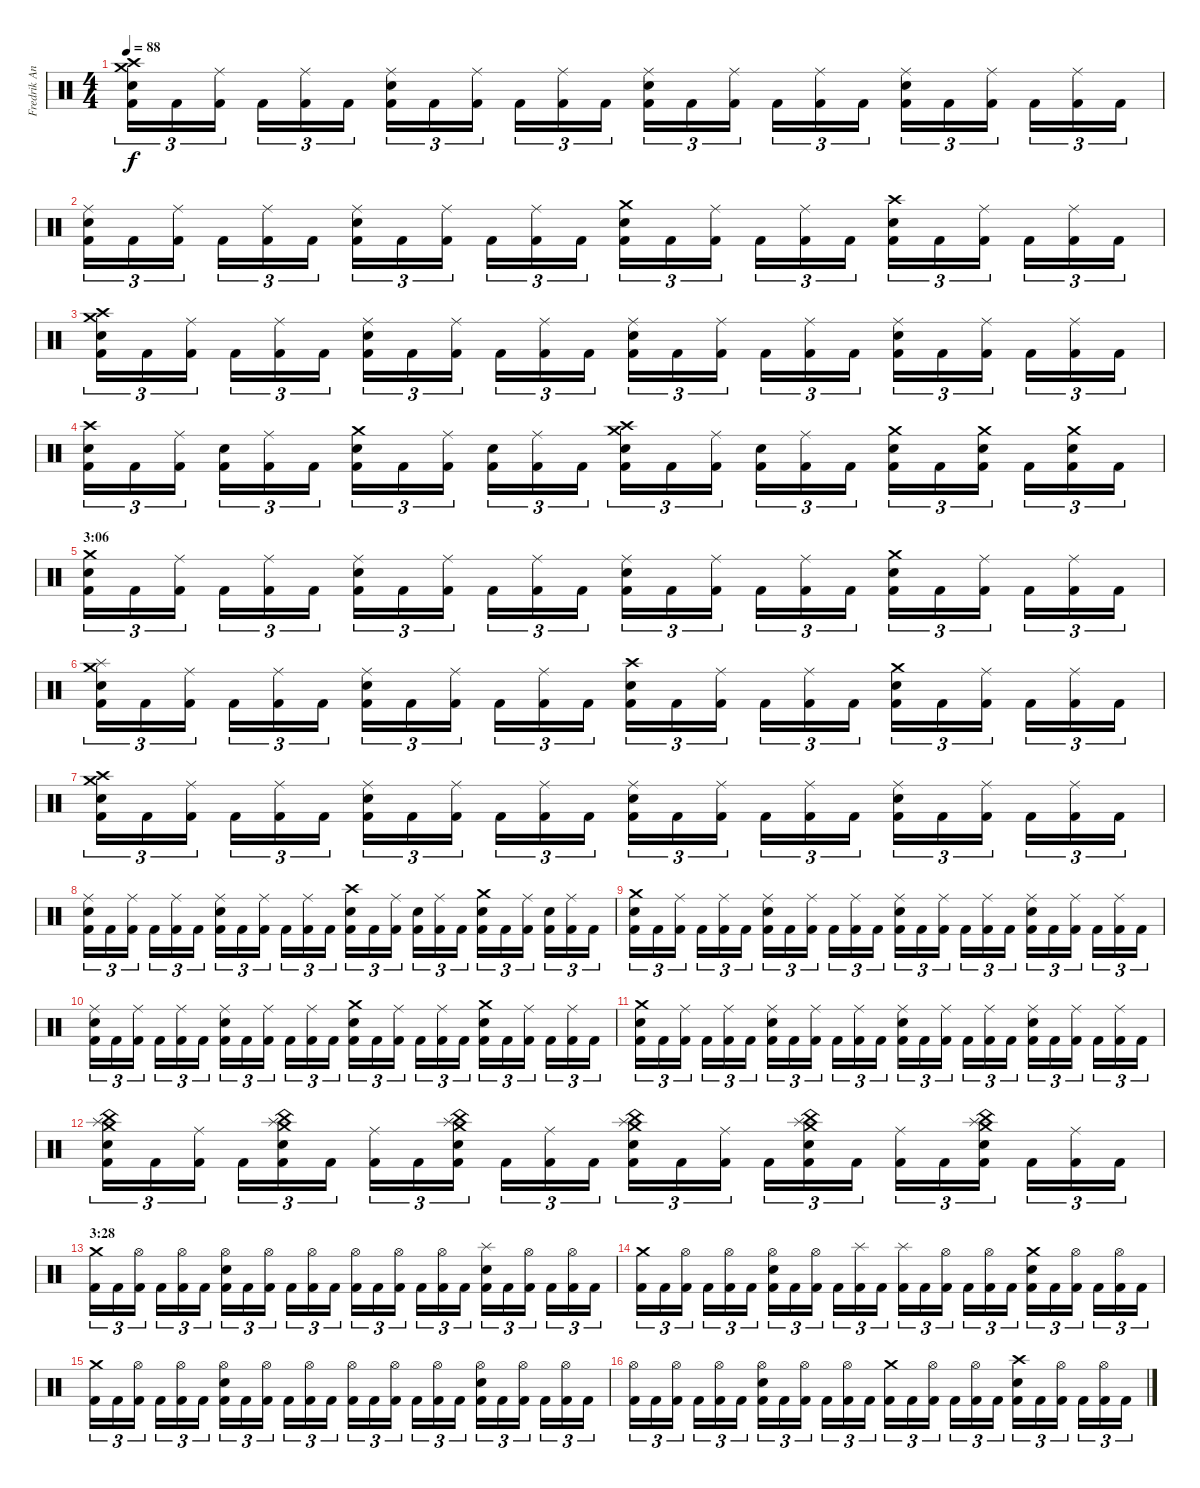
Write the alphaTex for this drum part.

\track ("Fredrik Andersson" "Fredrik An") {instrument percussion}
\staff {score}
\articulation defaults
\ts (4 4)
\tempo 88
\clef neutral
\ks c
("Crash medium (hit)" "Crash high (hit)" "Electric Snare (hit)" "Kick (hit) 2").16{tu (3 2) dy f} "Kick (hit) 2".16{tu (3 2)} ("Ride (middle)" "Kick (hit) 2").16{tu (3 2)} "Kick (hit) 2".16{tu (3 2)} ("Ride (middle)" "Kick (hit) 2").16{tu (3 2)} "Kick (hit) 2".16{tu (3 2)} ("Ride (middle)" "Electric Snare (hit)" "Kick (hit) 2").16{tu (3 2)} "Kick (hit) 2".16{tu (3 2)} ("Ride (middle)" "Kick (hit) 2").16{tu (3 2)} "Kick (hit) 2".16{tu (3 2)} ("Ride (middle)" "Kick (hit) 2").16{tu (3 2)} "Kick (hit) 2".16{tu (3 2)} ("Ride (middle)" "Electric Snare (hit)" "Kick (hit) 2").16{tu (3 2)} "Kick (hit) 2".16{tu (3 2)} ("Ride (middle)" "Kick (hit) 2").16{tu (3 2)} "Kick (hit) 2".16{tu (3 2)} ("Ride (middle)" "Kick (hit) 2").16{tu (3 2)} "Kick (hit) 2".16{tu (3 2)} ("Ride (middle)" "Electric Snare (hit)" "Kick (hit) 2").16{tu (3 2)} "Kick (hit) 2".16{tu (3 2)} ("Ride (middle)" "Kick (hit) 2").16{tu (3 2)} "Kick (hit) 2".16{tu (3 2)} ("Ride (middle)" "Kick (hit) 2").16{tu (3 2)} "Kick (hit) 2".16{tu (3 2)} |
("Ride (middle)" "Electric Snare (hit)" "Kick (hit) 2").16{tu (3 2)} "Kick (hit) 2".16{tu (3 2)} ("Ride (middle)" "Kick (hit) 2").16{tu (3 2)} "Kick (hit) 2".16{tu (3 2)} ("Ride (middle)" "Kick (hit) 2").16{tu (3 2)} "Kick (hit) 2".16{tu (3 2)} ("Ride (middle)" "Electric Snare (hit)" "Kick (hit) 2").16{tu (3 2)} "Kick (hit) 2".16{tu (3 2)} ("Ride (middle)" "Kick (hit) 2").16{tu (3 2)} "Kick (hit) 2".16{tu (3 2)} ("Ride (middle)" "Kick (hit) 2").16{tu (3 2)} "Kick (hit) 2".16{tu (3 2)} ("Crash medium (hit)" "Electric Snare (hit)" "Kick (hit) 2").16{tu (3 2)} "Kick (hit) 2".16{tu (3 2)} ("Ride (middle)" "Kick (hit) 2").16{tu (3 2)} "Kick (hit) 2".16{tu (3 2)} ("Ride (middle)" "Kick (hit) 2").16{tu (3 2)} "Kick (hit) 2".16{tu (3 2)} ("Crash high (hit)" "Electric Snare (hit)" "Kick (hit) 2").16{tu (3 2)} "Kick (hit) 2".16{tu (3 2)} ("Ride (middle)" "Kick (hit) 2").16{tu (3 2)} "Kick (hit) 2".16{tu (3 2)} ("Ride (middle)" "Kick (hit) 2").16{tu (3 2)} "Kick (hit) 2".16{tu (3 2)} |
("Crash medium (hit)" "Crash high (hit)" "Electric Snare (hit)" "Kick (hit) 2").16{tu (3 2)} "Kick (hit) 2".16{tu (3 2)} ("Ride (middle)" "Kick (hit) 2").16{tu (3 2)} "Kick (hit) 2".16{tu (3 2)} ("Ride (middle)" "Kick (hit) 2").16{tu (3 2)} "Kick (hit) 2".16{tu (3 2)} ("Ride (middle)" "Electric Snare (hit)" "Kick (hit) 2").16{tu (3 2)} "Kick (hit) 2".16{tu (3 2)} ("Ride (middle)" "Kick (hit) 2").16{tu (3 2)} "Kick (hit) 2".16{tu (3 2)} ("Ride (middle)" "Kick (hit) 2").16{tu (3 2)} "Kick (hit) 2".16{tu (3 2)} ("Ride (middle)" "Electric Snare (hit)" "Kick (hit) 2").16{tu (3 2)} "Kick (hit) 2".16{tu (3 2)} ("Ride (middle)" "Kick (hit) 2").16{tu (3 2)} "Kick (hit) 2".16{tu (3 2)} ("Ride (middle)" "Kick (hit) 2").16{tu (3 2)} "Kick (hit) 2".16{tu (3 2)} ("Ride (middle)" "Electric Snare (hit)" "Kick (hit) 2").16{tu (3 2)} "Kick (hit) 2".16{tu (3 2)} ("Ride (middle)" "Kick (hit) 2").16{tu (3 2)} "Kick (hit) 2".16{tu (3 2)} ("Ride (middle)" "Kick (hit) 2").16{tu (3 2)} "Kick (hit) 2".16{tu (3 2)} |
("Crash high (hit)" "Electric Snare (hit)" "Kick (hit) 2").16{tu (3 2)} "Kick (hit) 2".16{tu (3 2)} ("Ride (middle)" "Kick (hit) 2").16{tu (3 2)} ("Electric Snare (hit)" "Kick (hit) 2").16{tu (3 2)} ("Ride (middle)" "Kick (hit) 2").16{tu (3 2)} "Kick (hit) 2".16{tu (3 2)} ("Crash medium (hit)" "Electric Snare (hit)" "Kick (hit) 2").16{tu (3 2)} "Kick (hit) 2".16{tu (3 2)} ("Ride (middle)" "Kick (hit) 2").16{tu (3 2)} ("Electric Snare (hit)" "Kick (hit) 2").16{tu (3 2)} ("Ride (middle)" "Kick (hit) 2").16{tu (3 2)} "Kick (hit) 2".16{tu (3 2)} ("Crash high (hit)" "Crash medium (hit)" "Electric Snare (hit)" "Kick (hit) 2").16{tu (3 2)} "Kick (hit) 2".16{tu (3 2)} ("Ride (middle)" "Kick (hit) 2").16{tu (3 2)} ("Electric Snare (hit)" "Kick (hit) 2").16{tu (3 2)} ("Ride (middle)" "Kick (hit) 2").16{tu (3 2)} "Kick (hit) 2".16{tu (3 2)} ("Crash medium (hit)" "Electric Snare (hit)" "Kick (hit) 2").16{tu (3 2)} "Kick (hit) 2".16{tu (3 2)} ("Crash medium (hit)" "Electric Snare (hit)" "Kick (hit) 2").16{tu (3 2)} "Kick (hit) 2".16{tu (3 2)} ("Crash medium (hit)" "Electric Snare (hit)" "Kick (hit) 2").16{tu (3 2)} "Kick (hit) 2".16{tu (3 2)} |
\section ("" "3:06")
("Crash medium (hit)" "Electric Snare (hit)" "Kick (hit) 2").16{tu (3 2)} "Kick (hit) 2".16{tu (3 2)} ("Ride (middle)" "Kick (hit) 2").16{tu (3 2)} "Kick (hit) 2".16{tu (3 2)} ("Ride (middle)" "Kick (hit) 2").16{tu (3 2)} "Kick (hit) 2".16{tu (3 2)} ("Ride (middle)" "Electric Snare (hit)" "Kick (hit) 2").16{tu (3 2)} "Kick (hit) 2".16{tu (3 2)} ("Ride (middle)" "Kick (hit) 2").16{tu (3 2)} "Kick (hit) 2".16{tu (3 2)} ("Ride (middle)" "Kick (hit) 2").16{tu (3 2)} "Kick (hit) 2".16{tu (3 2)} ("Ride (middle)" "Electric Snare (hit)" "Kick (hit) 2").16{tu (3 2)} "Kick (hit) 2".16{tu (3 2)} ("Ride (middle)" "Kick (hit) 2").16{tu (3 2)} "Kick (hit) 2".16{tu (3 2)} ("Ride (middle)" "Kick (hit) 2").16{tu (3 2)} "Kick (hit) 2".16{tu (3 2)} ("Crash medium (hit)" "Electric Snare (hit)" "Kick (hit) 2").16{tu (3 2)} "Kick (hit) 2".16{tu (3 2)} ("Ride (middle)" "Kick (hit) 2").16{tu (3 2)} "Kick (hit) 2".16{tu (3 2)} ("Ride (middle)" "Kick (hit) 2").16{tu (3 2)} "Kick (hit) 2".16{tu (3 2)} |
("Crash medium (hit)" "Splash (hit)" "Electric Snare (hit)" "Kick (hit) 2").16{tu (3 2)} "Kick (hit) 2".16{tu (3 2)} ("Ride (middle)" "Kick (hit) 2").16{tu (3 2)} "Kick (hit) 2".16{tu (3 2)} ("Ride (middle)" "Kick (hit) 2").16{tu (3 2)} "Kick (hit) 2".16{tu (3 2)} ("Ride (middle)" "Electric Snare (hit)" "Kick (hit) 2").16{tu (3 2)} "Kick (hit) 2".16{tu (3 2)} ("Ride (middle)" "Kick (hit) 2").16{tu (3 2)} "Kick (hit) 2".16{tu (3 2)} ("Ride (middle)" "Kick (hit) 2").16{tu (3 2)} "Kick (hit) 2".16{tu (3 2)} ("Crash high (hit)" "Electric Snare (hit)" "Kick (hit) 2").16{tu (3 2)} "Kick (hit) 2".16{tu (3 2)} ("Ride (middle)" "Kick (hit) 2").16{tu (3 2)} "Kick (hit) 2".16{tu (3 2)} ("Ride (middle)" "Kick (hit) 2").16{tu (3 2)} "Kick (hit) 2".16{tu (3 2)} ("Crash medium (hit)" "Electric Snare (hit)" "Kick (hit) 2").16{tu (3 2)} "Kick (hit) 2".16{tu (3 2)} ("Ride (middle)" "Kick (hit) 2").16{tu (3 2)} "Kick (hit) 2".16{tu (3 2)} ("Ride (middle)" "Kick (hit) 2").16{tu (3 2)} "Kick (hit) 2".16{tu (3 2)} |
("Crash medium (hit)" "Crash high (hit)" "Electric Snare (hit)" "Kick (hit) 2").16{tu (3 2)} "Kick (hit) 2".16{tu (3 2)} ("Ride (middle)" "Kick (hit) 2").16{tu (3 2)} "Kick (hit) 2".16{tu (3 2)} ("Ride (middle)" "Kick (hit) 2").16{tu (3 2)} "Kick (hit) 2".16{tu (3 2)} ("Ride (middle)" "Electric Snare (hit)" "Kick (hit) 2").16{tu (3 2)} "Kick (hit) 2".16{tu (3 2)} ("Ride (middle)" "Kick (hit) 2").16{tu (3 2)} "Kick (hit) 2".16{tu (3 2)} ("Ride (middle)" "Kick (hit) 2").16{tu (3 2)} "Kick (hit) 2".16{tu (3 2)} ("Ride (middle)" "Electric Snare (hit)" "Kick (hit) 2").16{tu (3 2)} "Kick (hit) 2".16{tu (3 2)} ("Ride (middle)" "Kick (hit) 2").16{tu (3 2)} "Kick (hit) 2".16{tu (3 2)} ("Ride (middle)" "Kick (hit) 2").16{tu (3 2)} "Kick (hit) 2".16{tu (3 2)} ("Ride (middle)" "Electric Snare (hit)" "Kick (hit) 2").16{tu (3 2)} "Kick (hit) 2".16{tu (3 2)} ("Ride (middle)" "Kick (hit) 2").16{tu (3 2)} "Kick (hit) 2".16{tu (3 2)} ("Ride (middle)" "Kick (hit) 2").16{tu (3 2)} "Kick (hit) 2".16{tu (3 2)} |
("Ride (middle)" "Electric Snare (hit)" "Kick (hit) 2").16{tu (3 2)} "Kick (hit) 2".16{tu (3 2)} ("Ride (middle)" "Kick (hit) 2").16{tu (3 2)} "Kick (hit) 2".16{tu (3 2)} ("Ride (middle)" "Kick (hit) 2").16{tu (3 2)} "Kick (hit) 2".16{tu (3 2)} ("Ride (middle)" "Electric Snare (hit)" "Kick (hit) 2").16{tu (3 2)} "Kick (hit) 2".16{tu (3 2)} ("Ride (middle)" "Kick (hit) 2").16{tu (3 2)} "Kick (hit) 2".16{tu (3 2)} ("Ride (middle)" "Kick (hit) 2").16{tu (3 2)} "Kick (hit) 2".16{tu (3 2)} ("Crash high (hit)" "Electric Snare (hit)" "Kick (hit) 2").16{tu (3 2)} "Kick (hit) 2".16{tu (3 2)} ("Ride (middle)" "Kick (hit) 2").16{tu (3 2)} ("Electric Snare (hit)" "Kick (hit) 2").16{tu (3 2)} ("Ride (middle)" "Kick (hit) 2").16{tu (3 2)} "Kick (hit) 2".16{tu (3 2)} ("Crash medium (hit)" "Electric Snare (hit)" "Kick (hit) 2").16{tu (3 2)} "Kick (hit) 2".16{tu (3 2)} ("Ride (middle)" "Kick (hit) 2").16{tu (3 2)} ("Electric Snare (hit)" "Kick (hit) 2").16{tu (3 2)} ("Ride (middle)" "Kick (hit) 2").16{tu (3 2)} "Kick (hit) 2".16{tu (3 2)} |
("Crash medium (hit)" "Electric Snare (hit)" "Kick (hit) 2").16{tu (3 2)} "Kick (hit) 2".16{tu (3 2)} ("Ride (middle)" "Kick (hit) 2").16{tu (3 2)} "Kick (hit) 2".16{tu (3 2)} ("Ride (middle)" "Kick (hit) 2").16{tu (3 2)} "Kick (hit) 2".16{tu (3 2)} ("Ride (middle)" "Electric Snare (hit)" "Kick (hit) 2").16{tu (3 2)} "Kick (hit) 2".16{tu (3 2)} ("Ride (middle)" "Kick (hit) 2").16{tu (3 2)} "Kick (hit) 2".16{tu (3 2)} ("Ride (middle)" "Kick (hit) 2").16{tu (3 2)} "Kick (hit) 2".16{tu (3 2)} ("Ride (middle)" "Electric Snare (hit)" "Kick (hit) 2").16{tu (3 2)} "Kick (hit) 2".16{tu (3 2)} ("Ride (middle)" "Kick (hit) 2").16{tu (3 2)} "Kick (hit) 2".16{tu (3 2)} ("Ride (middle)" "Kick (hit) 2").16{tu (3 2)} "Kick (hit) 2".16{tu (3 2)} ("Ride (middle)" "Electric Snare (hit)" "Kick (hit) 2").16{tu (3 2)} "Kick (hit) 2".16{tu (3 2)} ("Ride (middle)" "Kick (hit) 2").16{tu (3 2)} "Kick (hit) 2".16{tu (3 2)} ("Ride (middle)" "Kick (hit) 2").16{tu (3 2)} "Kick (hit) 2".16{tu (3 2)} |
("Ride (middle)" "Electric Snare (hit)" "Kick (hit) 2").16{tu (3 2)} "Kick (hit) 2".16{tu (3 2)} ("Ride (middle)" "Kick (hit) 2").16{tu (3 2)} "Kick (hit) 2".16{tu (3 2)} ("Ride (middle)" "Kick (hit) 2").16{tu (3 2)} "Kick (hit) 2".16{tu (3 2)} ("Ride (middle)" "Electric Snare (hit)" "Kick (hit) 2").16{tu (3 2)} "Kick (hit) 2".16{tu (3 2)} ("Ride (middle)" "Kick (hit) 2").16{tu (3 2)} "Kick (hit) 2".16{tu (3 2)} ("Ride (middle)" "Kick (hit) 2").16{tu (3 2)} "Kick (hit) 2".16{tu (3 2)} ("Crash medium (hit)" "Electric Snare (hit)" "Kick (hit) 2").16{tu (3 2)} "Kick (hit) 2".16{tu (3 2)} ("Ride (middle)" "Kick (hit) 2").16{tu (3 2)} "Kick (hit) 2".16{tu (3 2)} ("Ride (middle)" "Kick (hit) 2").16{tu (3 2)} "Kick (hit) 2".16{tu (3 2)} ("Crash medium (hit)" "Electric Snare (hit)" "Kick (hit) 2").16{tu (3 2)} "Kick (hit) 2".16{tu (3 2)} ("Ride (middle)" "Kick (hit) 2").16{tu (3 2)} "Kick (hit) 2".16{tu (3 2)} ("Ride (middle)" "Kick (hit) 2").16{tu (3 2)} "Kick (hit) 2".16{tu (3 2)} |
("Crash medium (hit)" "Electric Snare (hit)" "Kick (hit) 2").16{tu (3 2)} "Kick (hit) 2".16{tu (3 2)} ("Ride (middle)" "Kick (hit) 2").16{tu (3 2)} "Kick (hit) 2".16{tu (3 2)} ("Ride (middle)" "Kick (hit) 2").16{tu (3 2)} "Kick (hit) 2".16{tu (3 2)} ("Ride (middle)" "Electric Snare (hit)" "Kick (hit) 2").16{tu (3 2)} "Kick (hit) 2".16{tu (3 2)} ("Ride (middle)" "Kick (hit) 2").16{tu (3 2)} "Kick (hit) 2".16{tu (3 2)} ("Ride (middle)" "Kick (hit) 2").16{tu (3 2)} "Kick (hit) 2".16{tu (3 2)} ("Ride (middle)" "Electric Snare (hit)" "Kick (hit) 2").16{tu (3 2)} "Kick (hit) 2".16{tu (3 2)} ("Ride (middle)" "Kick (hit) 2").16{tu (3 2)} "Kick (hit) 2".16{tu (3 2)} ("Ride (middle)" "Kick (hit) 2").16{tu (3 2)} "Kick (hit) 2".16{tu (3 2)} ("Ride (middle)" "Electric Snare (hit)" "Kick (hit) 2").16{tu (3 2)} "Kick (hit) 2".16{tu (3 2)} ("Ride (middle)" "Kick (hit) 2").16{tu (3 2)} "Kick (hit) 2".16{tu (3 2)} ("Ride (middle)" "Kick (hit) 2").16{tu (3 2)} "Kick (hit) 2".16{tu (3 2)} |
("China (hit)" "Splash (hit)" "Crash medium (hit)" "Electric Snare (hit)" "Kick (hit) 2").16{tu (3 2)} "Kick (hit) 2".16{tu (3 2)} ("Ride (middle)" "Kick (hit) 2").16{tu (3 2)} "Kick (hit) 2".16{tu (3 2)} ("China (hit)" "Splash (hit)" "Crash medium (hit)" "Electric Snare (hit)" "Kick (hit) 2").16{tu (3 2)} "Kick (hit) 2".16{tu (3 2)} ("Ride (middle)" "Kick (hit) 2").16{tu (3 2)} "Kick (hit) 2".16{tu (3 2)} ("China (hit)" "Splash (hit)" "Crash medium (hit)" "Electric Snare (hit)" "Kick (hit) 2").16{tu (3 2)} "Kick (hit) 2".16{tu (3 2)} ("Ride (middle)" "Kick (hit) 2").16{tu (3 2)} "Kick (hit) 2".16{tu (3 2)} ("China (hit)" "Splash (hit)" "Crash medium (hit)" "Electric Snare (hit)" "Kick (hit) 2").16{tu (3 2)} "Kick (hit) 2".16{tu (3 2)} ("Ride (middle)" "Kick (hit) 2").16{tu (3 2)} "Kick (hit) 2".16{tu (3 2)} ("China (hit)" "Splash (hit)" "Crash medium (hit)" "Electric Snare (hit)" "Kick (hit) 2").16{tu (3 2)} "Kick (hit) 2".16{tu (3 2)} ("Ride (middle)" "Kick (hit) 2").16{tu (3 2)} "Kick (hit) 2".16{tu (3 2)} ("China (hit)" "Splash (hit)" "Crash medium (hit)" "Electric Snare (hit)" "Kick (hit) 2").16{tu (3 2)} "Kick (hit) 2".16{tu (3 2)} ("Ride (middle)" "Kick (hit) 2").16{tu (3 2)} "Kick (hit) 2".16{tu (3 2)} |
\section ("" "3:28")
("Crash medium (hit)" "Kick (hit) 2").16{tu (3 2)} "Kick (hit) 2".16{tu (3 2)} ("Hi-Hat (open)" "Kick (hit) 2").16{tu (3 2)} "Kick (hit) 2".16{tu (3 2)} ("Hi-Hat (open)" "Kick (hit) 2").16{tu (3 2)} "Kick (hit) 2".16{tu (3 2)} ("Hi-Hat (open)" "Electric Snare (hit)" "Kick (hit) 2").16{tu (3 2)} "Kick (hit) 2".16{tu (3 2)} ("Hi-Hat (open)" "Kick (hit) 2").16{tu (3 2)} "Kick (hit) 2".16{tu (3 2)} ("Hi-Hat (open)" "Kick (hit) 2").16{tu (3 2)} "Kick (hit) 2".16{tu (3 2)} ("Hi-Hat (open)" "Kick (hit) 2").16{tu (3 2)} "Kick (hit) 2".16{tu (3 2)} ("Hi-Hat (open)" "Kick (hit) 2").16{tu (3 2)} "Kick (hit) 2".16{tu (3 2)} ("Hi-Hat (open)" "Kick (hit) 2").16{tu (3 2)} "Kick (hit) 2".16{tu (3 2)} ("Splash (hit)" "Electric Snare (hit)" "Kick (hit) 2").16{tu (3 2)} "Kick (hit) 2".16{tu (3 2)} ("Hi-Hat (open)" "Kick (hit) 2").16{tu (3 2)} "Kick (hit) 2".16{tu (3 2)} ("Hi-Hat (open)" "Kick (hit) 2").16{tu (3 2)} "Kick (hit) 2".16{tu (3 2)} |
("Crash medium (hit)" "Kick (hit) 2").16{tu (3 2)} "Kick (hit) 2".16{tu (3 2)} ("Hi-Hat (open)" "Kick (hit) 2").16{tu (3 2)} "Kick (hit) 2".16{tu (3 2)} ("Hi-Hat (open)" "Kick (hit) 2").16{tu (3 2)} "Kick (hit) 2".16{tu (3 2)} ("Hi-Hat (open)" "Electric Snare (hit)" "Kick (hit) 2").16{tu (3 2)} "Kick (hit) 2".16{tu (3 2)} ("Hi-Hat (open)" "Kick (hit) 2").16{tu (3 2)} "Kick (hit) 2".16{tu (3 2)} ("Splash (hit)" "Kick (hit) 2").16{tu (3 2)} "Kick (hit) 2".16{tu (3 2)} ("Splash (hit)" "Kick (hit) 2").16{tu (3 2)} "Kick (hit) 2".16{tu (3 2)} ("Hi-Hat (open)" "Kick (hit) 2").16{tu (3 2)} "Kick (hit) 2".16{tu (3 2)} ("Hi-Hat (open)" "Kick (hit) 2").16{tu (3 2)} "Kick (hit) 2".16{tu (3 2)} ("Crash medium (hit)" "Electric Snare (hit)" "Kick (hit) 2").16{tu (3 2)} "Kick (hit) 2".16{tu (3 2)} ("Hi-Hat (open)" "Kick (hit) 2").16{tu (3 2)} "Kick (hit) 2".16{tu (3 2)} ("Hi-Hat (open)" "Kick (hit) 2").16{tu (3 2)} "Kick (hit) 2".16{tu (3 2)} |
("Crash medium (hit)" "Kick (hit) 2").16{tu (3 2)} "Kick (hit) 2".16{tu (3 2)} ("Hi-Hat (open)" "Kick (hit) 2").16{tu (3 2)} "Kick (hit) 2".16{tu (3 2)} ("Hi-Hat (open)" "Kick (hit) 2").16{tu (3 2)} "Kick (hit) 2".16{tu (3 2)} ("Hi-Hat (open)" "Electric Snare (hit)" "Kick (hit) 2").16{tu (3 2)} "Kick (hit) 2".16{tu (3 2)} ("Hi-Hat (open)" "Kick (hit) 2").16{tu (3 2)} "Kick (hit) 2".16{tu (3 2)} ("Hi-Hat (open)" "Kick (hit) 2").16{tu (3 2)} "Kick (hit) 2".16{tu (3 2)} ("Hi-Hat (open)" "Kick (hit) 2").16{tu (3 2)} "Kick (hit) 2".16{tu (3 2)} ("Hi-Hat (open)" "Kick (hit) 2").16{tu (3 2)} "Kick (hit) 2".16{tu (3 2)} ("Hi-Hat (open)" "Kick (hit) 2").16{tu (3 2)} "Kick (hit) 2".16{tu (3 2)} ("Hi-Hat (open)" "Electric Snare (hit)" "Kick (hit) 2").16{tu (3 2)} "Kick (hit) 2".16{tu (3 2)} ("Hi-Hat (open)" "Kick (hit) 2").16{tu (3 2)} "Kick (hit) 2".16{tu (3 2)} ("Hi-Hat (open)" "Kick (hit) 2").16{tu (3 2)} "Kick (hit) 2".16{tu (3 2)} |
("Hi-Hat (open)" "Kick (hit) 2").16{tu (3 2)} "Kick (hit) 2".16{tu (3 2)} ("Hi-Hat (open)" "Kick (hit) 2").16{tu (3 2)} "Kick (hit) 2".16{tu (3 2)} ("Hi-Hat (open)" "Kick (hit) 2").16{tu (3 2)} "Kick (hit) 2".16{tu (3 2)} ("Hi-Hat (open)" "Electric Snare (hit)" "Kick (hit) 2").16{tu (3 2)} "Kick (hit) 2".16{tu (3 2)} ("Hi-Hat (open)" "Kick (hit) 2").16{tu (3 2)} "Kick (hit) 2".16{tu (3 2)} ("Hi-Hat (open)" "Kick (hit) 2").16{tu (3 2)} "Kick (hit) 2".16{tu (3 2)} ("Crash medium (hit)" "Kick (hit) 2").16{tu (3 2)} "Kick (hit) 2".16{tu (3 2)} ("Hi-Hat (open)" "Kick (hit) 2").16{tu (3 2)} "Kick (hit) 2".16{tu (3 2)} ("Hi-Hat (open)" "Kick (hit) 2").16{tu (3 2)} "Kick (hit) 2".16{tu (3 2)} ("Crash high (hit)" "Electric Snare (hit)" "Kick (hit) 2").16{tu (3 2)} "Kick (hit) 2".16{tu (3 2)} ("Hi-Hat (open)" "Kick (hit) 2").16{tu (3 2)} "Kick (hit) 2".16{tu (3 2)} ("Hi-Hat (open)" "Kick (hit) 2").16{tu (3 2)} "Kick (hit) 2".16{tu (3 2)}
